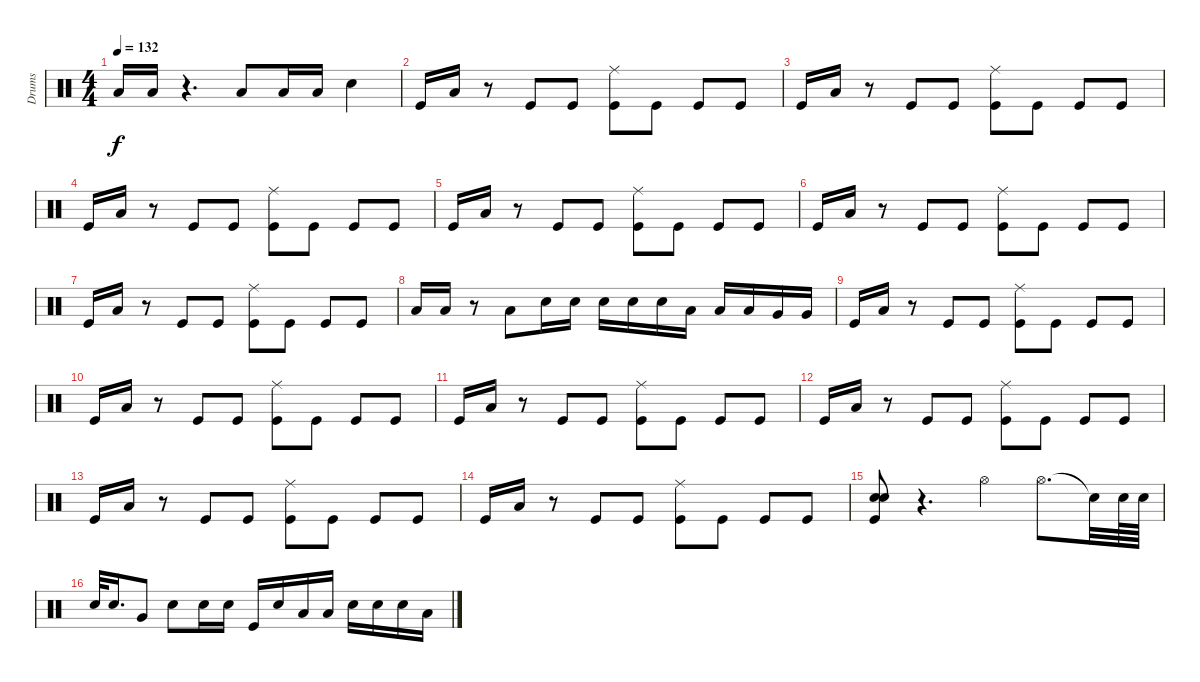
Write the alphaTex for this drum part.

\track ("Drums" "Drums") {instrument percussion}
\staff {score}
\articulation defaults
\ts (4 4)
\tempo 132
\clef neutral
\ks c "Low Tom (hit)".16{dy f} "Low Tom (hit)".16
r.4{d} "Low Tom (hit)".8 "Low Tom (hit)".16 "Low Tom (hit)".16 "Snare (hit) 2".4 |
"Kick (hit)".16 "Low Tom (hit)".16 r.8 "Kick (hit)".8 "Kick (hit)".8 ("Ride (middle)" "Kick (hit)").8 "Kick (hit)".8 "Kick (hit)".8 "Kick (hit)".8 |
"Kick (hit)".16 "Low Tom (hit)".16 r.8 "Kick (hit)".8 "Kick (hit)".8 ("Ride (middle)" "Kick (hit)").8 "Kick (hit)".8 "Kick (hit)".8 "Kick (hit)".8 |
"Kick (hit)".16 "Low Tom (hit)".16 r.8 "Kick (hit)".8 "Kick (hit)".8 ("Ride (middle)" "Kick (hit)").8 "Kick (hit)".8 "Kick (hit)".8 "Kick (hit)".8 |
"Kick (hit)".16 "Low Tom (hit)".16 r.8 "Kick (hit)".8 "Kick (hit)".8 ("Ride (middle)" "Kick (hit)").8 "Kick (hit)".8 "Kick (hit)".8 "Kick (hit)".8 |
"Kick (hit)".16 "Low Tom (hit)".16 r.8 "Kick (hit)".8 "Kick (hit)".8 ("Ride (middle)" "Kick (hit)").8 "Kick (hit)".8 "Kick (hit)".8 "Kick (hit)".8 |
"Kick (hit)".16 "Low Tom (hit)".16 r.8 "Kick (hit)".8 "Kick (hit)".8 ("Ride (middle)" "Kick (hit)").8 "Kick (hit)".8 "Kick (hit)".8 "Kick (hit)".8 |
"Low Tom (hit)".16 "Low Tom (hit)".16 r.8 "Low Tom (hit)".8 "Snare (hit) 2".16 "Snare (hit) 2".16 "Snare (hit) 2".16 "Snare (hit) 2".16 "Snare (hit) 2".16 "Low Tom (hit)".16 "Low Tom (hit)".16 "Low Tom (hit)".16 "Very Low Tom (hit)".16 "Very Low Tom (hit)".16 |
"Kick (hit)".16 "Low Tom (hit)".16 r.8 "Kick (hit)".8 "Kick (hit)".8 ("Ride (middle)" "Kick (hit)").8 "Kick (hit)".8 "Kick (hit)".8 "Kick (hit)".8 |
"Kick (hit)".16 "Low Tom (hit)".16 r.8 "Kick (hit)".8 "Kick (hit)".8 ("Ride (middle)" "Kick (hit)").8 "Kick (hit)".8 "Kick (hit)".8 "Kick (hit)".8 |
"Kick (hit)".16 "Low Tom (hit)".16 r.8 "Kick (hit)".8 "Kick (hit)".8 ("Ride (middle)" "Kick (hit)").8 "Kick (hit)".8 "Kick (hit)".8 "Kick (hit)".8 |
"Kick (hit)".16 "Low Tom (hit)".16 r.8 "Kick (hit)".8 "Kick (hit)".8 ("Ride (middle)" "Kick (hit)").8 "Kick (hit)".8 "Kick (hit)".8 "Kick (hit)".8 |
"Kick (hit)".16 "Low Tom (hit)".16 r.8 "Kick (hit)".8 "Kick (hit)".8 ("Ride (middle)" "Kick (hit)").8 "Kick (hit)".8 "Kick (hit)".8 "Kick (hit)".8 |
"Kick (hit)".16 "Low Tom (hit)".16 r.8 "Kick (hit)".8 "Kick (hit)".8 ("Ride (middle)" "Kick (hit)").8 "Kick (hit)".8 "Kick (hit)".8 "Kick (hit)".8 |
("Snare (hit) 2" "Snare (hit) 2" "Kick (hit)").8 r.4{d} "Hi-Hat (open)".4 "Hi-Hat (open)".8{d} "Snare (hit)"{t}.32 "Snare (hit) 2".64 "Snare (hit) 2".64 |
"Snare (hit) 2".32 "Snare (hit) 2".16{d} "Very Low Tom (hit)".8 "Snare (hit) 2".8 "Snare (hit) 2".16 "Snare (hit) 2".16 "Kick (hit)".16 "Snare (hit) 2".16 "Low Floor Tom (hit)".16 "Low Floor Tom (hit)".16 "Snare (hit) 2".16 "Snare (hit) 2".16 "Snare (hit) 2".16 "Low Floor Tom (hit)".16
